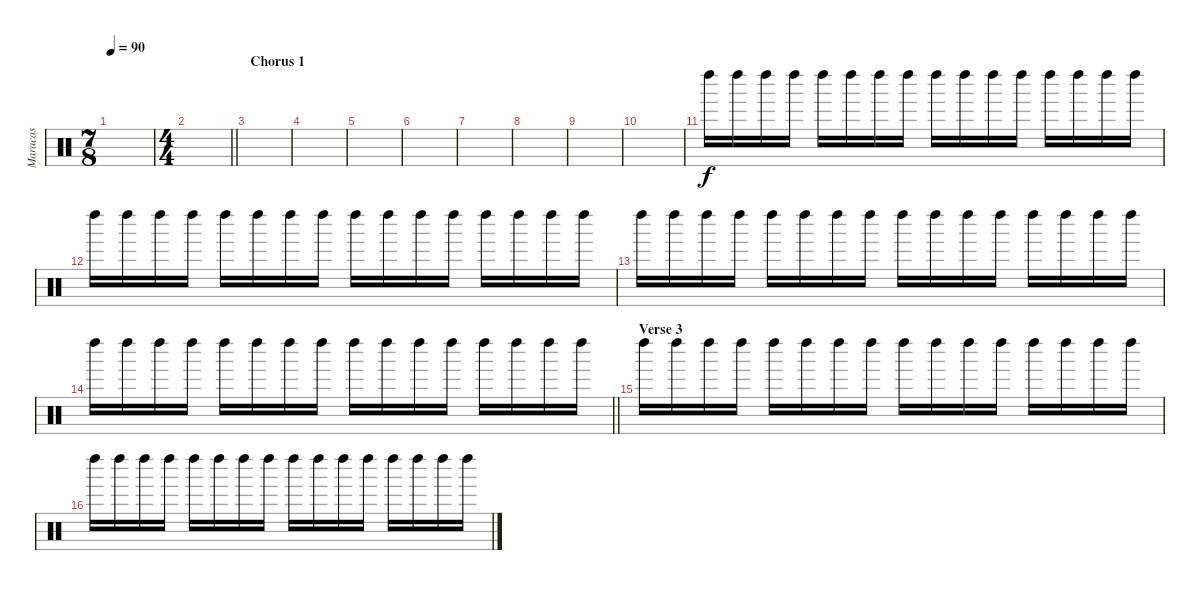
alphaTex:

\track ("Maracas" "Maracas") {instrument percussion}
\staff {score}
\articulation defaults
\ts (7 8)
\tempo 90
\clef neutral
\ks c
|
\ts (4 4)
\barLineRight lightlight
|
\section ("" "Chorus 1")
|
|
|
|
|
|
|
|
"Left Maraca (hit)".16 "Left Maraca (hit)".16 "Left Maraca (hit)".16 "Left Maraca (hit)".16 "Left Maraca (hit)".16 "Left Maraca (hit)".16 "Left Maraca (hit)".16 "Left Maraca (hit)".16 "Left Maraca (hit)".16 "Left Maraca (hit)".16 "Left Maraca (hit)".16 "Left Maraca (hit)".16 "Left Maraca (hit)".16 "Left Maraca (hit)".16 "Left Maraca (hit)".16 "Left Maraca (hit)".16 |
"Left Maraca (hit)".16 "Left Maraca (hit)".16 "Left Maraca (hit)".16 "Left Maraca (hit)".16 "Left Maraca (hit)".16 "Left Maraca (hit)".16 "Left Maraca (hit)".16 "Left Maraca (hit)".16 "Left Maraca (hit)".16 "Left Maraca (hit)".16 "Left Maraca (hit)".16 "Left Maraca (hit)".16 "Left Maraca (hit)".16 "Left Maraca (hit)".16 "Left Maraca (hit)".16 "Left Maraca (hit)".16 |
"Left Maraca (hit)".16 "Left Maraca (hit)".16 "Left Maraca (hit)".16 "Left Maraca (hit)".16 "Left Maraca (hit)".16 "Left Maraca (hit)".16 "Left Maraca (hit)".16 "Left Maraca (hit)".16 "Left Maraca (hit)".16 "Left Maraca (hit)".16 "Left Maraca (hit)".16 "Left Maraca (hit)".16 "Left Maraca (hit)".16 "Left Maraca (hit)".16 "Left Maraca (hit)".16 "Left Maraca (hit)".16 |
\barLineRight lightlight "Left Maraca (hit)".16 "Left Maraca (hit)".16 "Left Maraca (hit)".16 "Left Maraca (hit)".16 "Left Maraca (hit)".16 "Left Maraca (hit)".16 "Left Maraca (hit)".16 "Left Maraca (hit)".16 "Left Maraca (hit)".16 "Left Maraca (hit)".16 "Left Maraca (hit)".16 "Left Maraca (hit)".16 "Left Maraca (hit)".16 "Left Maraca (hit)".16 "Left Maraca (hit)".16 "Left Maraca (hit)".16
|
\section ("" "Verse 3")
"Left Maraca (hit)".16 "Left Maraca (hit)".16 "Left Maraca (hit)".16 "Left Maraca (hit)".16 "Left Maraca (hit)".16 "Left Maraca (hit)".16 "Left Maraca (hit)".16 "Left Maraca (hit)".16 "Left Maraca (hit)".16 "Left Maraca (hit)".16 "Left Maraca (hit)".16 "Left Maraca (hit)".16 "Left Maraca (hit)".16 "Left Maraca (hit)".16 "Left Maraca (hit)".16 "Left Maraca (hit)".16 |
"Left Maraca (hit)".16 "Left Maraca (hit)".16 "Left Maraca (hit)".16 "Left Maraca (hit)".16 "Left Maraca (hit)".16 "Left Maraca (hit)".16 "Left Maraca (hit)".16 "Left Maraca (hit)".16 "Left Maraca (hit)".16 "Left Maraca (hit)".16 "Left Maraca (hit)".16 "Left Maraca (hit)".16 "Left Maraca (hit)".16 "Left Maraca (hit)".16 "Left Maraca (hit)".16 "Left Maraca (hit)".16
